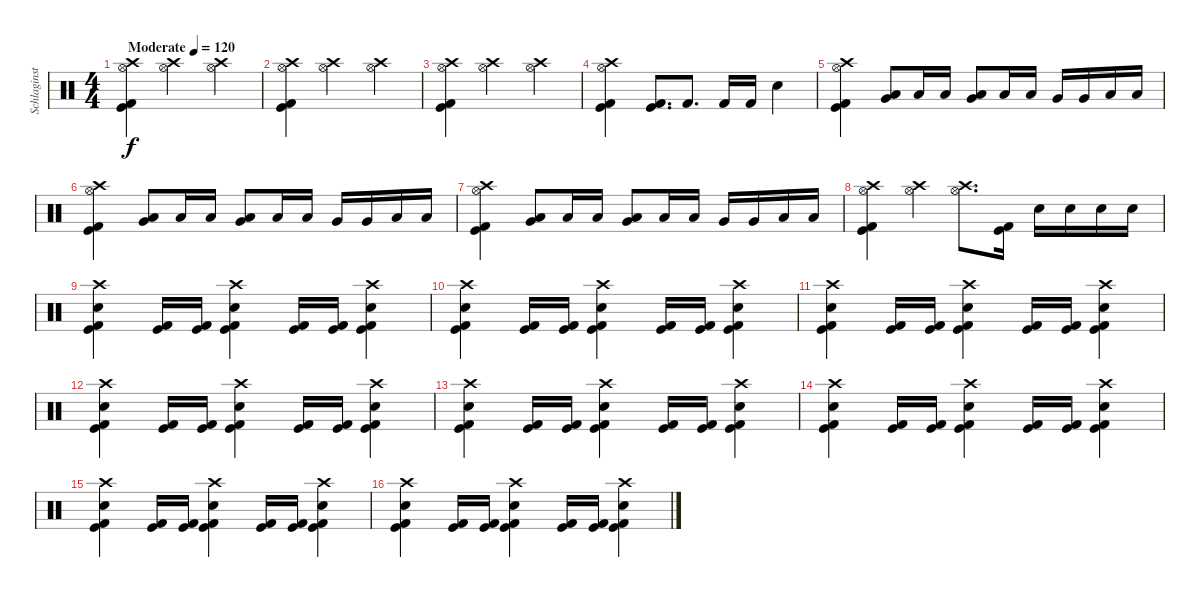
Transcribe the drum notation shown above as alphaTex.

\track ("Schlaginstrumente - Auswahl" "Schlaginst") {instrument percussion}
\staff
\articulation defaults
\ts (4 4)
\tempo (120 "Moderate")
\clef neutral
\ks c
("Crash high (hit)" "Hi-Hat (open)" "Kick (hit)" "Kick (hit) 2").4{dy f} ("Crash high (hit)" "Hi-Hat (open)").2 ("Crash high (hit)" "Hi-Hat (open)").4 |
("Crash high (hit)" "Hi-Hat (open)" "Kick (hit)" "Kick (hit) 2").4 ("Crash high (hit)" "Hi-Hat (open)").2 ("Crash high (hit)" "Hi-Hat (open)").4 |
("Crash high (hit)" "Hi-Hat (open)" "Kick (hit)" "Kick (hit) 2").4 ("Crash high (hit)" "Hi-Hat (open)").2 ("Crash high (hit)" "Hi-Hat (open)").4 |
("Crash high (hit)" "Hi-Hat (open)" "Kick (hit)" "Kick (hit) 2").4 ("Kick (hit)" "Kick (hit) 2").8{d} "Kick (hit) 2".8{d} "Kick (hit) 2".16 "Kick (hit) 2".16 "Electric Snare (hit)".4 |
("Crash high (hit)" "Hi-Hat (open)" "Kick (hit)" "Kick (hit) 2").4 ("Low Tom (hit)" "Very Low Tom (hit)").8 "Low Tom (hit)".16 "Low Tom (hit)".16 ("Very Low Tom (hit)" "Low Tom (hit)").8 "Low Tom (hit)".16 "Low Tom (hit)".16 "Very Low Tom (hit)".16 "Very Low Tom (hit)".16 "Low Floor Tom (hit)".16 "Low Floor Tom (hit)".16 |
("Crash high (hit)" "Hi-Hat (open)" "Kick (hit)" "Kick (hit) 2").4 ("Low Tom (hit)" "Very Low Tom (hit)").8 "Low Tom (hit)".16 "Low Tom (hit)".16 ("Very Low Tom (hit)" "Low Tom (hit)").8 "Low Tom (hit)".16 "Low Tom (hit)".16 "Very Low Tom (hit)".16 "Very Low Tom (hit)".16 "Low Floor Tom (hit)".16 "Low Floor Tom (hit)".16 |
("Crash high (hit)" "Hi-Hat (open)" "Kick (hit)" "Kick (hit) 2").4 ("Low Tom (hit)" "Very Low Tom (hit)").8 "Low Tom (hit)".16 "Low Tom (hit)".16 ("Very Low Tom (hit)" "Low Tom (hit)").8 "Low Tom (hit)".16 "Low Tom (hit)".16 "Very Low Tom (hit)".16 "Very Low Tom (hit)".16 "Low Floor Tom (hit)".16 "Low Floor Tom (hit)".16 |
("Hi-Hat (open)" "Crash high (hit)" "Kick (hit)" "Kick (hit) 2").4 ("Hi-Hat (open)" "Crash high (hit)").4 ("Hi-Hat (open)" "Crash high (hit)").8{d} ("Kick (hit)" "Kick (hit) 2").16 "Electric Snare (hit)".16 "Electric Snare (hit)".16 "Electric Snare (hit)".16 "Electric Snare (hit)".16 |
("Crash high (hit)" "Electric Snare (hit)" "Kick (hit)" "Kick (hit) 2").4 ("Kick (hit)" "Kick (hit) 2").16 ("Kick (hit)" "Kick (hit) 2").16 ("Crash high (hit)" "Electric Snare (hit)" "Kick (hit)" "Kick (hit) 2").4 ("Kick (hit)" "Kick (hit) 2").16 ("Kick (hit)" "Kick (hit) 2").16 ("Crash high (hit)" "Electric Snare (hit)" "Kick (hit)" "Kick (hit) 2").4 |
("Crash high (hit)" "Electric Snare (hit)" "Kick (hit)" "Kick (hit) 2").4 ("Kick (hit)" "Kick (hit) 2").16 ("Kick (hit)" "Kick (hit) 2").16 ("Crash high (hit)" "Electric Snare (hit)" "Kick (hit)" "Kick (hit) 2").4 ("Kick (hit)" "Kick (hit) 2").16 ("Kick (hit)" "Kick (hit) 2").16 ("Crash high (hit)" "Electric Snare (hit)" "Kick (hit)" "Kick (hit) 2").4 |
("Crash high (hit)" "Electric Snare (hit)" "Kick (hit)" "Kick (hit) 2").4 ("Kick (hit)" "Kick (hit) 2").16 ("Kick (hit)" "Kick (hit) 2").16 ("Crash high (hit)" "Electric Snare (hit)" "Kick (hit)" "Kick (hit) 2").4 ("Kick (hit)" "Kick (hit) 2").16 ("Kick (hit)" "Kick (hit) 2").16 ("Crash high (hit)" "Electric Snare (hit)" "Kick (hit)" "Kick (hit) 2").4 |
("Crash high (hit)" "Electric Snare (hit)" "Kick (hit)" "Kick (hit) 2").4 ("Kick (hit)" "Kick (hit) 2").16 ("Kick (hit)" "Kick (hit) 2").16 ("Crash high (hit)" "Electric Snare (hit)" "Kick (hit)" "Kick (hit) 2").4 ("Kick (hit)" "Kick (hit) 2").16 ("Kick (hit)" "Kick (hit) 2").16 ("Crash high (hit)" "Electric Snare (hit)" "Kick (hit)" "Kick (hit) 2").4 |
("Crash high (hit)" "Electric Snare (hit)" "Kick (hit)" "Kick (hit) 2").4 ("Kick (hit)" "Kick (hit) 2").16 ("Kick (hit)" "Kick (hit) 2").16 ("Crash high (hit)" "Electric Snare (hit)" "Kick (hit)" "Kick (hit) 2").4 ("Kick (hit)" "Kick (hit) 2").16 ("Kick (hit)" "Kick (hit) 2").16 ("Crash high (hit)" "Electric Snare (hit)" "Kick (hit)" "Kick (hit) 2").4 |
("Crash high (hit)" "Electric Snare (hit)" "Kick (hit)" "Kick (hit) 2").4 ("Kick (hit)" "Kick (hit) 2").16 ("Kick (hit)" "Kick (hit) 2").16 ("Crash high (hit)" "Electric Snare (hit)" "Kick (hit)" "Kick (hit) 2").4 ("Kick (hit)" "Kick (hit) 2").16 ("Kick (hit)" "Kick (hit) 2").16 ("Crash high (hit)" "Electric Snare (hit)" "Kick (hit)" "Kick (hit) 2").4 |
("Crash high (hit)" "Electric Snare (hit)" "Kick (hit)" "Kick (hit) 2").4 ("Kick (hit)" "Kick (hit) 2").16 ("Kick (hit)" "Kick (hit) 2").16 ("Crash high (hit)" "Electric Snare (hit)" "Kick (hit)" "Kick (hit) 2").4 ("Kick (hit)" "Kick (hit) 2").16 ("Kick (hit)" "Kick (hit) 2").16 ("Crash high (hit)" "Electric Snare (hit)" "Kick (hit)" "Kick (hit) 2").4 |
("Crash high (hit)" "Electric Snare (hit)" "Kick (hit)" "Kick (hit) 2").4 ("Kick (hit)" "Kick (hit) 2").16 ("Kick (hit)" "Kick (hit) 2").16 ("Crash high (hit)" "Electric Snare (hit)" "Kick (hit)" "Kick (hit) 2").4 ("Kick (hit)" "Kick (hit) 2").16 ("Kick (hit)" "Kick (hit) 2").16 ("Crash high (hit)" "Electric Snare (hit)" "Kick (hit)" "Kick (hit) 2").4
